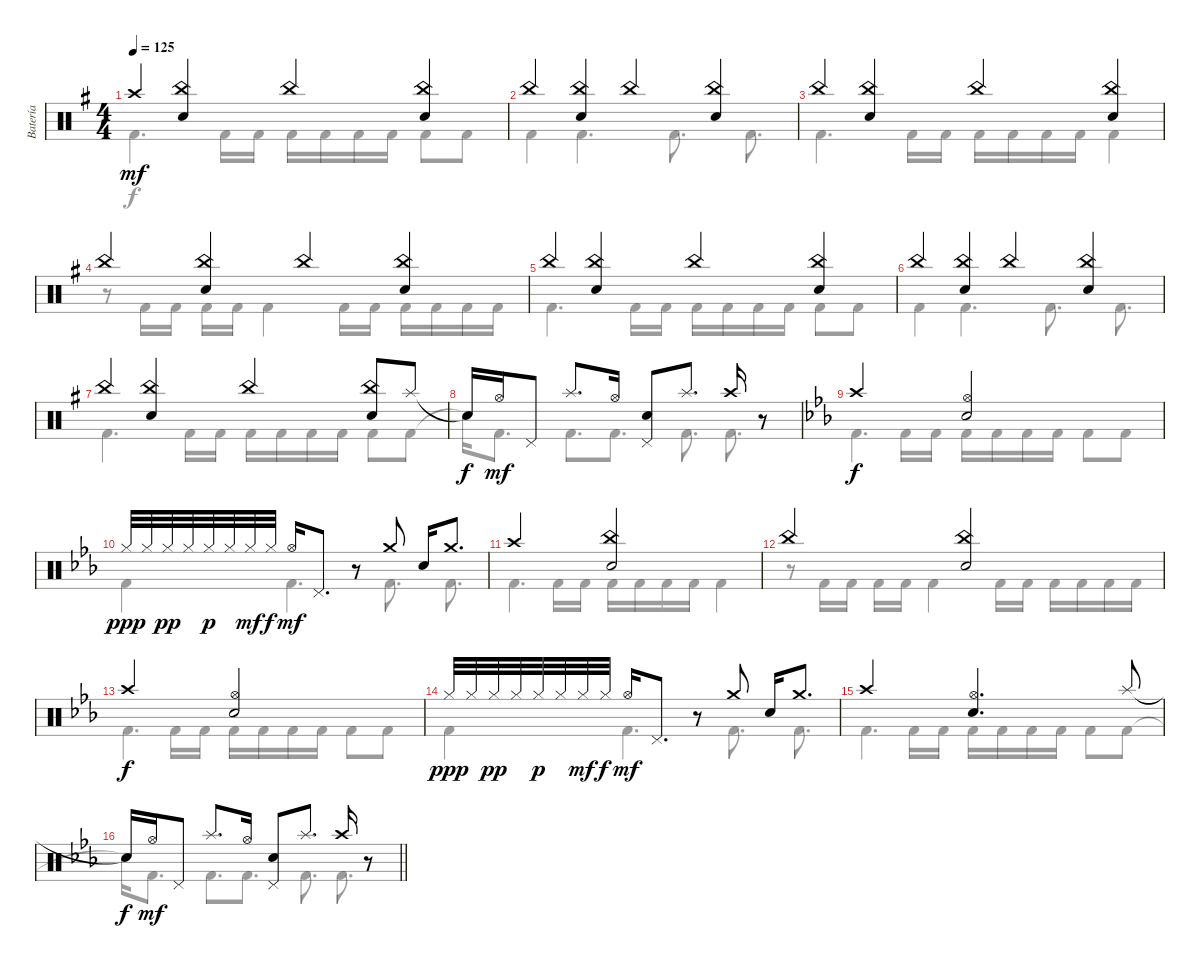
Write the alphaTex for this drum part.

\track ("Batería" "Batería") {instrument percussion}
\staff {score}
\articulation defaults
\voice
\ts (4 4)
\tempo 125
\clef neutral
\ks g "Crash high (hit)".4{dy mf volume 13}
("China (hit)" "Snare (hit) 2").4 "China (hit)".4 ("China (hit)" "Snare (hit) 2").4 |
"China (hit)".4 ("China (hit)" "Snare (hit) 2").4 "China (hit)".4 ("China (hit)" "Snare (hit) 2").4 |
"China (hit)".4 ("China (hit)" "Snare (hit) 2").4 "China (hit)".4 ("China (hit)" "Snare (hit) 2").4 |
"China (hit)".4 ("China (hit)" "Snare (hit) 2").4 "China (hit)".4 ("China (hit)" "Snare (hit) 2").4 |
"China (hit)".4 ("China (hit)" "Snare (hit) 2").4 "China (hit)".4 ("China (hit)" "Snare (hit) 2").4 |
"China (hit)".4 ("China (hit)" "Snare (hit) 2").4 "China (hit)".4 ("China (hit)" "Snare (hit) 2").4 |
"China (hit)".4 ("China (hit)" "Snare (hit) 2").4 "China (hit)".4 ("China (hit)" "Snare (hit) 2").8 "Splash (hit)".8 |
"Snare (hit)"{t}.16{dy f} "Hi-Hat (open)".16{dy mf} "Pedal Hi-Hat (hit)".8 "Splash (hit)".8{d} "Hi-Hat (open)".16 ("Snare (hit) 2" "Pedal Hi-Hat (hit)").8 "Splash (hit)".8{d} "Crash high (hit)".16 r.8{volume 0} |
\ks eb "Crash high (hit)".2{dy f volume 13}
("Hi-Hat (open)" "Snare (hit) 2").2 |
"Hi-Hat (closed)".32{dy ppp} "Hi-Hat (closed)".32 "Hi-Hat (closed)".32{dy pp} "Hi-Hat (closed)".32 "Hi-Hat (closed)".32{dy p} "Hi-Hat (closed)".32 "Hi-Hat (closed)".32{dy mf} "Hi-Hat (closed)".32{dy f} "Hi-Hat (open)".16{dy mf} "Pedal Hi-Hat (hit)".8{d} r.8 "Crash medium (hit)".8 "Snare (hit) 2".16 "Crash medium (hit)".8{d} |
"Crash high (hit)".2 ("China (hit)" "Snare (hit) 2").2 |
"China (hit)".2 ("China (hit)" "Snare (hit) 2").2 |
"Crash high (hit)".2{dy f} ("Hi-Hat (open)" "Snare (hit) 2").2 |
"Hi-Hat (closed)".32{dy ppp} "Hi-Hat (closed)".32 "Hi-Hat (closed)".32{dy pp} "Hi-Hat (closed)".32 "Hi-Hat (closed)".32{dy p} "Hi-Hat (closed)".32 "Hi-Hat (closed)".32{dy mf} "Hi-Hat (closed)".32{dy f} "Hi-Hat (open)".16{dy mf} "Pedal Hi-Hat (hit)".8{d} r.8 "Crash medium (hit)".8 "Snare (hit) 2".16 "Crash medium (hit)".8{d} |
"Crash high (hit)".2 ("Hi-Hat (open)" "Snare (hit) 2").4{d} "Splash (hit)".8 |
\barLineRight lightlight "Snare (hit)"{t}.16{dy f} "Hi-Hat (open)".16{dy mf} "Pedal Hi-Hat (hit)".8 "Splash (hit)".8{d} "Hi-Hat (open)".16
("Snare (hit) 2" "Pedal Hi-Hat (hit)").8 "Splash (hit)".8{d} "Crash high (hit)".16 r.8{volume 0}
\voice
\clef neutral
\ottava regular
\simile none
\ks g "Kick (hit) 2".4{d dy f} "Kick (hit) 2".16 "Kick (hit) 2".16 "Kick (hit) 2".16 "Kick (hit) 2".16 "Kick (hit) 2".16 "Kick (hit) 2".16 "Kick (hit) 2".8 "Kick (hit) 2".8
|
"Kick (hit) 2".4 "Kick (hit) 2".4{d} "Kick (hit) 2".8{d} "Kick (hit) 2".8{d} |
"Kick (hit) 2".4{d} "Kick (hit) 2".16 "Kick (hit) 2".16 "Kick (hit) 2".16 "Kick (hit) 2".16 "Kick (hit) 2".16 "Kick (hit) 2".16 "Kick (hit) 2".4 |
r.8 "Kick (hit) 2".16 "Kick (hit) 2".16 "Kick (hit) 2".16 "Kick (hit) 2".16 "Kick (hit) 2".4 "Kick (hit) 2".16 "Kick (hit) 2".16 "Kick (hit) 2".16 "Kick (hit) 2".16 "Kick (hit) 2".16 "Kick (hit) 2".16 |
"Kick (hit) 2".4{d} "Kick (hit) 2".16 "Kick (hit) 2".16 "Kick (hit) 2".16 "Kick (hit) 2".16 "Kick (hit) 2".16 "Kick (hit) 2".16 "Kick (hit) 2".8 "Kick (hit) 2".8 |
"Kick (hit) 2".4 "Kick (hit) 2".4{d} "Kick (hit) 2".8{d} "Kick (hit) 2".8{d} |
"Kick (hit) 2".4{d} "Kick (hit) 2".16 "Kick (hit) 2".16 "Kick (hit) 2".16 "Kick (hit) 2".16 "Kick (hit) 2".16 "Kick (hit) 2".16 "Kick (hit) 2".8 "Kick (hit) 2".8 |
"Snare (hit)"{t}.16 "Kick (hit) 2".8{d} "Kick (hit) 2".8{d} "Kick (hit) 2".8{d} "Kick (hit) 2".8{d} "Kick (hit) 2".8{d} |
\ks eb "Kick (hit) 2".4{d} "Kick (hit) 2".16 "Kick (hit) 2".16 "Kick (hit) 2".16 "Kick (hit) 2".16 "Kick (hit) 2".16 "Kick (hit) 2".16 "Kick (hit) 2".8 "Kick (hit) 2".8
|
"Kick (hit) 2".4 "Kick (hit) 2".4{d} "Kick (hit) 2".8{d} "Kick (hit) 2".8{d} |
"Kick (hit) 2".4{d} "Kick (hit) 2".16 "Kick (hit) 2".16 "Kick (hit) 2".16 "Kick (hit) 2".16 "Kick (hit) 2".16 "Kick (hit) 2".16 "Kick (hit) 2".4 |
r.8 "Kick (hit) 2".16 "Kick (hit) 2".16 "Kick (hit) 2".16 "Kick (hit) 2".16 "Kick (hit) 2".4 "Kick (hit) 2".16 "Kick (hit) 2".16 "Kick (hit) 2".16 "Kick (hit) 2".16 "Kick (hit) 2".16 "Kick (hit) 2".16 |
"Kick (hit) 2".4{d} "Kick (hit) 2".16 "Kick (hit) 2".16 "Kick (hit) 2".16 "Kick (hit) 2".16 "Kick (hit) 2".16 "Kick (hit) 2".16 "Kick (hit) 2".8 "Kick (hit) 2".8 |
"Kick (hit) 2".4 "Kick (hit) 2".4{d} "Kick (hit) 2".8{d} "Kick (hit) 2".8{d} |
"Kick (hit) 2".4{d} "Kick (hit) 2".16 "Kick (hit) 2".16 "Kick (hit) 2".16 "Kick (hit) 2".16 "Kick (hit) 2".16 "Kick (hit) 2".16 "Kick (hit) 2".8 "Kick (hit) 2".8 |
\barLineRight lightlight "Snare (hit)"{t}.16 "Kick (hit) 2".8{d} "Kick (hit) 2".8{d} "Kick (hit) 2".8{d} "Kick (hit) 2".8{d} "Kick (hit) 2".8{d}
